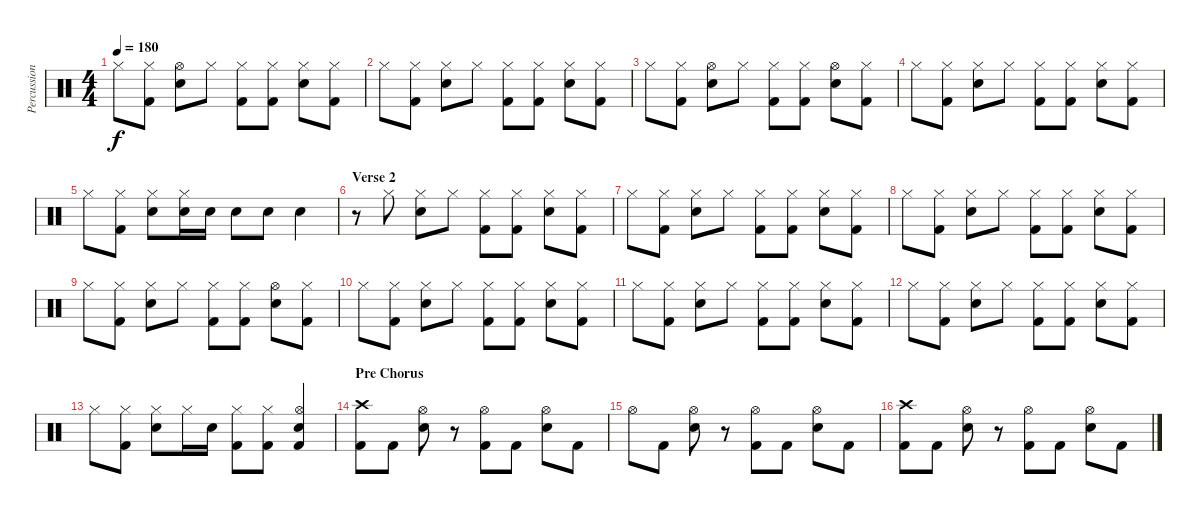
\track ("Percussion" "Percussion") {instrument percussion}
\staff {score}
\articulation defaults
\ts (4 4)
\tempo 180
\clef neutral
\ks c "Hi-Hat (closed)".8{dy f}
("Hi-Hat (closed)" "Kick (hit) 2").8 ("Hi-Hat (open)" "Electric Snare (hit)").8 "Hi-Hat (closed)".8 ("Hi-Hat (closed)" "Kick (hit) 2").8 ("Hi-Hat (closed)" "Kick (hit) 2").8 ("Hi-Hat (closed)" "Electric Snare (hit)").8 ("Hi-Hat (closed)" "Kick (hit) 2").8 |
"Hi-Hat (closed)".8 ("Hi-Hat (closed)" "Kick (hit) 2").8 ("Hi-Hat (closed)" "Electric Snare (hit)").8 "Hi-Hat (closed)".8 ("Hi-Hat (closed)" "Kick (hit) 2").8 ("Hi-Hat (closed)" "Kick (hit) 2").8 ("Hi-Hat (closed)" "Electric Snare (hit)").8 ("Hi-Hat (closed)" "Kick (hit) 2").8 |
"Hi-Hat (closed)".8 ("Hi-Hat (closed)" "Kick (hit) 2").8 ("Hi-Hat (open)" "Electric Snare (hit)").8 "Hi-Hat (closed)".8 ("Hi-Hat (closed)" "Kick (hit) 2").8 ("Hi-Hat (closed)" "Kick (hit) 2").8 ("Hi-Hat (open)" "Electric Snare (hit)").8 ("Hi-Hat (closed)" "Kick (hit) 2").8 |
"Hi-Hat (closed)".8 ("Hi-Hat (closed)" "Kick (hit) 2").8 ("Hi-Hat (closed)" "Electric Snare (hit)").8 "Hi-Hat (closed)".8 ("Hi-Hat (closed)" "Kick (hit) 2").8 ("Hi-Hat (closed)" "Kick (hit) 2").8 ("Hi-Hat (closed)" "Electric Snare (hit)").8 ("Hi-Hat (closed)" "Kick (hit) 2").8 |
"Hi-Hat (closed)".8 ("Hi-Hat (closed)" "Kick (hit) 2").8 ("Hi-Hat (closed)" "Electric Snare (hit)").8 ("Hi-Hat (closed)" "Electric Snare (hit)").16 "Electric Snare (hit)".16 "Electric Snare (hit)".8 "Electric Snare (hit)".8 "Electric Snare (hit)".4 |
\section ("" "Verse 2")
r.8 "Hi-Hat (closed)".8 ("Hi-Hat (closed)" "Electric Snare (hit)").8 "Hi-Hat (closed)".8 ("Hi-Hat (closed)" "Kick (hit) 2").8 ("Hi-Hat (closed)" "Kick (hit) 2").8 ("Hi-Hat (closed)" "Electric Snare (hit)").8 ("Hi-Hat (closed)" "Kick (hit) 2").8 |
"Hi-Hat (closed)".8 ("Hi-Hat (closed)" "Kick (hit) 2").8 ("Hi-Hat (closed)" "Electric Snare (hit)").8 "Hi-Hat (closed)".8 ("Hi-Hat (closed)" "Kick (hit) 2").8 ("Hi-Hat (closed)" "Kick (hit) 2").8 ("Hi-Hat (closed)" "Electric Snare (hit)").8 ("Hi-Hat (closed)" "Kick (hit) 2").8 |
"Hi-Hat (closed)".8 ("Hi-Hat (closed)" "Kick (hit) 2").8 ("Hi-Hat (closed)" "Electric Snare (hit)").8 "Hi-Hat (closed)".8 ("Hi-Hat (closed)" "Kick (hit) 2").8 ("Hi-Hat (closed)" "Kick (hit) 2").8 ("Hi-Hat (closed)" "Electric Snare (hit)").8 ("Hi-Hat (closed)" "Kick (hit) 2").8 |
"Hi-Hat (closed)".8 ("Hi-Hat (closed)" "Kick (hit) 2").8 ("Hi-Hat (closed)" "Electric Snare (hit)").8 "Hi-Hat (closed)".8 ("Hi-Hat (closed)" "Kick (hit) 2").8 ("Hi-Hat (closed)" "Kick (hit) 2").8 ("Hi-Hat (open)" "Electric Snare (hit)").8 ("Hi-Hat (closed)" "Kick (hit) 2").8 |
"Hi-Hat (closed)".8 ("Hi-Hat (closed)" "Kick (hit) 2").8 ("Hi-Hat (closed)" "Electric Snare (hit)").8 "Hi-Hat (closed)".8 ("Hi-Hat (closed)" "Kick (hit) 2").8 ("Hi-Hat (closed)" "Kick (hit) 2").8 ("Hi-Hat (closed)" "Electric Snare (hit)").8 ("Hi-Hat (closed)" "Kick (hit) 2").8 |
"Hi-Hat (closed)".8 ("Hi-Hat (closed)" "Kick (hit) 2").8 ("Hi-Hat (closed)" "Electric Snare (hit)").8 "Hi-Hat (closed)".8 ("Hi-Hat (closed)" "Kick (hit) 2").8 ("Hi-Hat (closed)" "Kick (hit) 2").8 ("Hi-Hat (closed)" "Electric Snare (hit)").8 ("Hi-Hat (closed)" "Kick (hit) 2").8 |
"Hi-Hat (closed)".8 ("Hi-Hat (closed)" "Kick (hit) 2").8 ("Hi-Hat (closed)" "Electric Snare (hit)").8 "Hi-Hat (closed)".8 ("Hi-Hat (closed)" "Kick (hit) 2").8 ("Hi-Hat (closed)" "Kick (hit) 2").8 ("Hi-Hat (closed)" "Electric Snare (hit)").8 ("Hi-Hat (closed)" "Kick (hit) 2").8 |
"Hi-Hat (closed)".8 ("Hi-Hat (closed)" "Kick (hit) 2").8 ("Hi-Hat (closed)" "Electric Snare (hit)").8 "Hi-Hat (closed)".16 "Electric Snare (hit)".16 ("Hi-Hat (closed)" "Kick (hit) 2").8 ("Hi-Hat (closed)" "Kick (hit) 2").8 ("Hi-Hat (open)" "Electric Snare (hit)" "Kick (hit) 2").4 |
\section ("" "Pre Chorus")
("Crash high (hit)" "Kick (hit) 2").8 "Kick (hit) 2".8 ("Hi-Hat (open)" "Electric Snare (hit)").8 r.8 ("Hi-Hat (open)" "Kick (hit) 2").8 "Kick (hit) 2".8 ("Hi-Hat (open)" "Electric Snare (hit)").8 "Kick (hit) 2".8 |
"Hi-Hat (open)".8 "Kick (hit) 2".8 ("Hi-Hat (open)" "Electric Snare (hit)").8 r.8 ("Hi-Hat (open)" "Kick (hit) 2").8 "Kick (hit) 2".8 ("Hi-Hat (open)" "Electric Snare (hit)").8 "Kick (hit) 2".8 |
("Crash high (hit)" "Kick (hit) 2").8 "Kick (hit) 2".8 ("Hi-Hat (open)" "Electric Snare (hit)").8 r.8 ("Hi-Hat (open)" "Kick (hit) 2").8 "Kick (hit) 2".8 ("Hi-Hat (open)" "Electric Snare (hit)").8 "Kick (hit) 2".8
